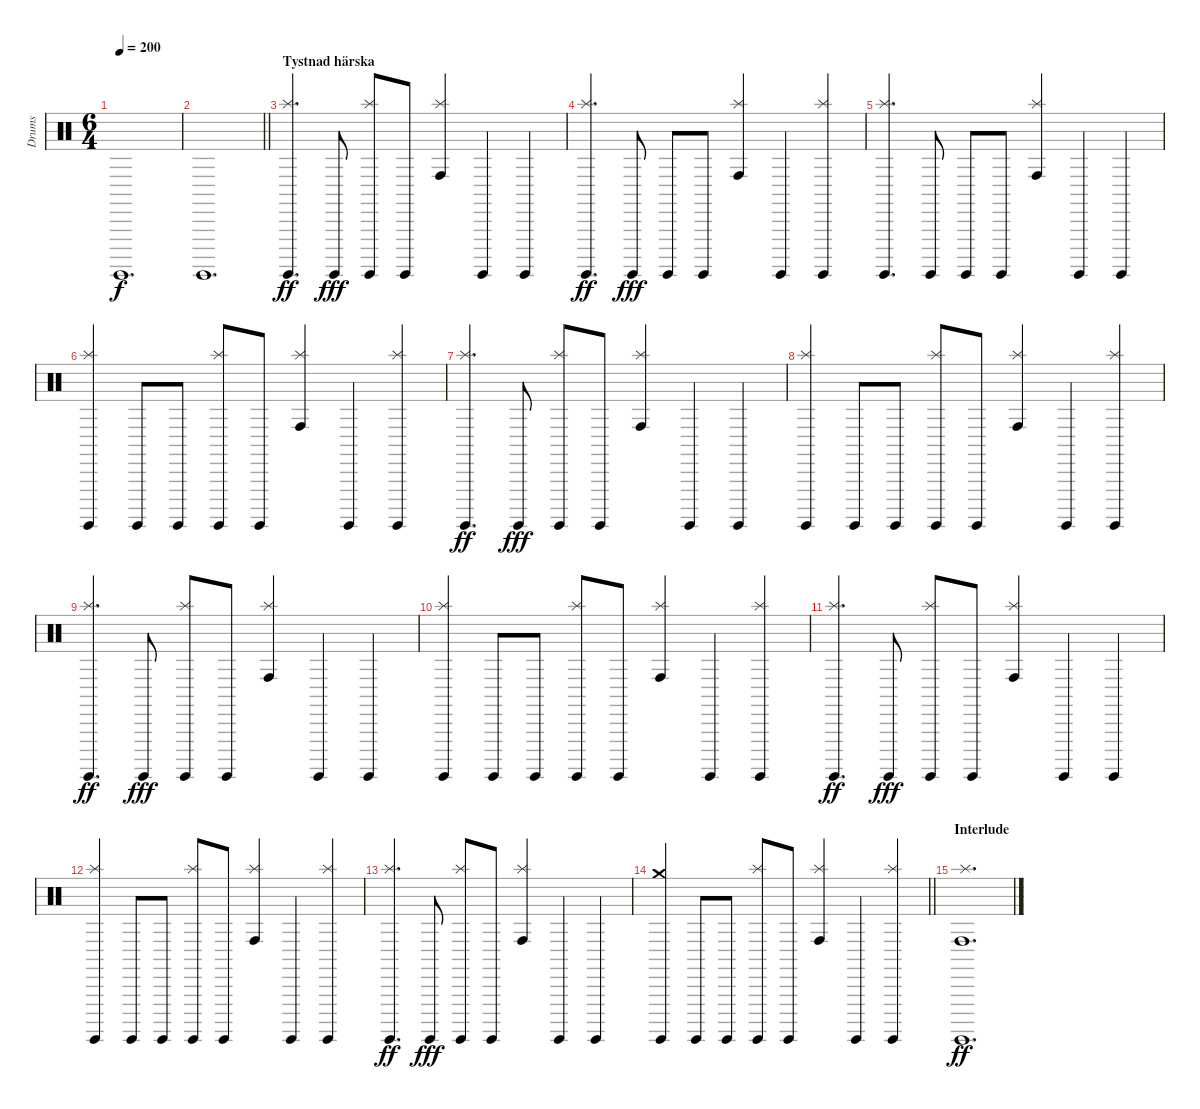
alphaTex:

\track ("Drums" "Drums") {instrument percussion}
\staff {score}
\articulation defaults
\ts (6 4)
\tempo 200
\clef neutral
\ks c "Surdo (hit)".1{d dy f}
|
\barLineRight lightlight "Surdo (hit)".1{d}
|
\section ("" "Tystnad härska")
("Splash (hit)" "Surdo (hit)").4{d dy ff} "Surdo (hit)".8{dy fff} ("Splash (hit)" "Surdo (hit)").8 "Surdo (hit)".8 ("Splash (hit)" "Conga high (hit)").4 "Surdo (hit)".4 "Surdo (hit)".4 |
("Splash (hit)" "Surdo (hit)").4{d dy ff} "Surdo (hit)".8{dy fff} "Surdo (hit)".8 "Surdo (hit)".8 ("Splash (hit)" "Conga high (hit)").4 "Surdo (hit)".4 ("Splash (hit)" "Surdo (hit)").4 |
("Splash (hit)" "Surdo (hit)").4{d} "Surdo (hit)".8 "Surdo (hit)".8 "Surdo (hit)".8 ("Splash (hit)" "Conga high (hit)").4 "Surdo (hit)".4 "Surdo (hit)".4 |
("Splash (hit)" "Surdo (hit)").4 "Surdo (hit)".8 "Surdo (hit)".8 ("Splash (hit)" "Surdo (hit)").8 "Surdo (hit)".8 ("Splash (hit)" "Conga high (hit)").4 "Surdo (hit)".4 ("Splash (hit)" "Surdo (hit)").4 |
("Splash (hit)" "Surdo (hit)").4{d dy ff} "Surdo (hit)".8{dy fff} ("Splash (hit)" "Surdo (hit)").8 "Surdo (hit)".8 ("Splash (hit)" "Conga high (hit)").4 "Surdo (hit)".4 "Surdo (hit)".4 |
("Splash (hit)" "Surdo (hit)").4 "Surdo (hit)".8 "Surdo (hit)".8 ("Splash (hit)" "Surdo (hit)").8 "Surdo (hit)".8 ("Splash (hit)" "Conga high (hit)").4 "Surdo (hit)".4 ("Splash (hit)" "Surdo (hit)").4 |
("Splash (hit)" "Surdo (hit)").4{d dy ff} "Surdo (hit)".8{dy fff} ("Splash (hit)" "Surdo (hit)").8 "Surdo (hit)".8 ("Splash (hit)" "Conga high (hit)").4 "Surdo (hit)".4 "Surdo (hit)".4 |
("Splash (hit)" "Surdo (hit)").4 "Surdo (hit)".8 "Surdo (hit)".8 ("Splash (hit)" "Surdo (hit)").8 "Surdo (hit)".8 ("Splash (hit)" "Conga high (hit)").4 "Surdo (hit)".4 ("Splash (hit)" "Surdo (hit)").4 |
("Splash (hit)" "Surdo (hit)").4{d dy ff} "Surdo (hit)".8{dy fff} ("Splash (hit)" "Surdo (hit)").8 "Surdo (hit)".8 ("Splash (hit)" "Conga high (hit)").4 "Surdo (hit)".4 "Surdo (hit)".4 |
("Splash (hit)" "Surdo (hit)").4 "Surdo (hit)".8 "Surdo (hit)".8 ("Splash (hit)" "Surdo (hit)").8 "Surdo (hit)".8 ("Splash (hit)" "Conga high (hit)").4 "Surdo (hit)".4 ("Splash (hit)" "Surdo (hit)").4 |
("Splash (hit)" "Surdo (hit)").4{d dy ff} "Surdo (hit)".8{dy fff} ("Splash (hit)" "Surdo (hit)").8 "Surdo (hit)".8 ("Splash (hit)" "Conga high (hit)").4 "Surdo (hit)".4 "Surdo (hit)".4 |
\barLineRight lightlight
("Crash medium (hit)" "Surdo (hit)").4 "Surdo (hit)".8 "Surdo (hit)".8 ("Splash (hit)" "Surdo (hit)").8 "Surdo (hit)".8 ("Splash (hit)" "Conga high (hit)").4 "Surdo (hit)".4 ("Splash (hit)" "Surdo (hit)").4 |
\section ("" "Interlude")
("Splash (hit)" "Conga high (hit)" "Surdo (hit)").1{d dy ff}
